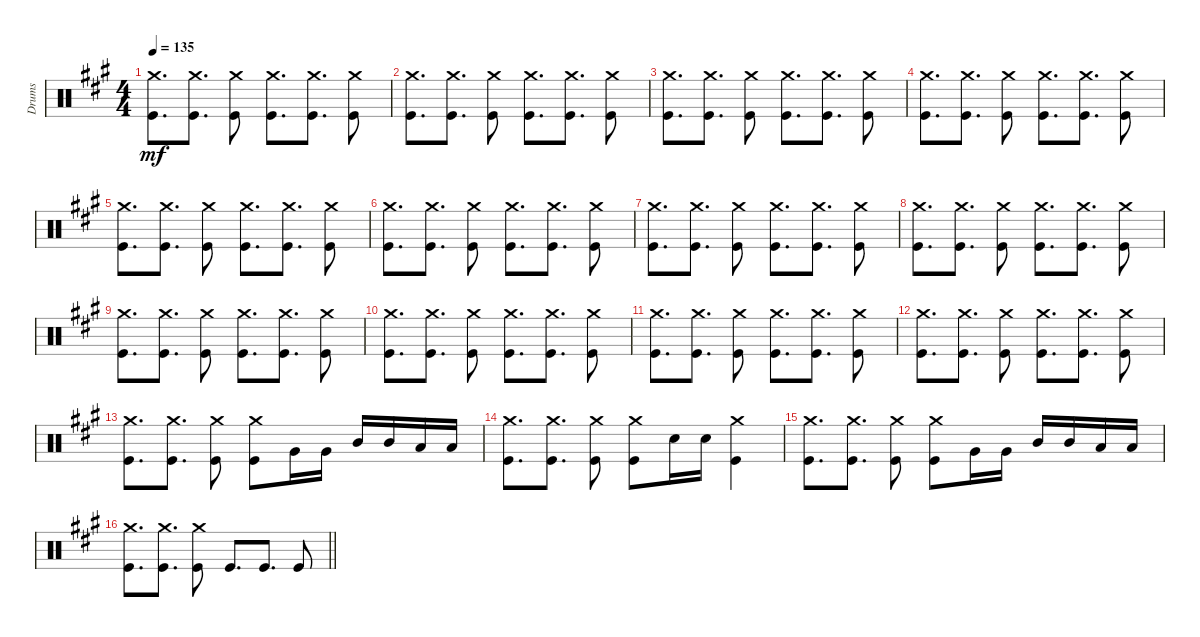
\track ("Drums" "Drums") {instrument percussion}
\staff {score}
\articulation defaults
\ts (4 4)
\tempo 135
\clef neutral
\ks a
("Kick (hit)" "Crash medium (hit)").8{d dy mf} ("Kick (hit)" "Crash medium (hit)").8{d} ("Kick (hit)" "Crash medium (hit)").8 ("Kick (hit)" "Crash medium (hit)").8{d} ("Kick (hit)" "Crash medium (hit)").8{d} ("Kick (hit)" "Crash medium (hit)").8 |
("Kick (hit)" "Crash medium (hit)").8{d} ("Kick (hit)" "Crash medium (hit)").8{d} ("Kick (hit)" "Crash medium (hit)").8 ("Kick (hit)" "Crash medium (hit)").8{d} ("Kick (hit)" "Crash medium (hit)").8{d} ("Kick (hit)" "Crash medium (hit)").8 |
("Kick (hit)" "Crash medium (hit)").8{d} ("Kick (hit)" "Crash medium (hit)").8{d} ("Kick (hit)" "Crash medium (hit)").8 ("Kick (hit)" "Crash medium (hit)").8{d} ("Kick (hit)" "Crash medium (hit)").8{d} ("Kick (hit)" "Crash medium (hit)").8 |
("Kick (hit)" "Crash medium (hit)").8{d} ("Kick (hit)" "Crash medium (hit)").8{d} ("Kick (hit)" "Crash medium (hit)").8 ("Kick (hit)" "Crash medium (hit)").8{d} ("Kick (hit)" "Crash medium (hit)").8{d} ("Kick (hit)" "Crash medium (hit)").8 |
("Kick (hit)" "Crash medium (hit)").8{d} ("Kick (hit)" "Crash medium (hit)").8{d} ("Kick (hit)" "Crash medium (hit)").8 ("Kick (hit)" "Crash medium (hit)").8{d} ("Kick (hit)" "Crash medium (hit)").8{d} ("Kick (hit)" "Crash medium (hit)").8 |
("Kick (hit)" "Crash medium (hit)").8{d} ("Kick (hit)" "Crash medium (hit)").8{d} ("Kick (hit)" "Crash medium (hit)").8 ("Kick (hit)" "Crash medium (hit)").8{d} ("Kick (hit)" "Crash medium (hit)").8{d} ("Kick (hit)" "Crash medium (hit)").8 |
("Kick (hit)" "Crash medium (hit)").8{d} ("Kick (hit)" "Crash medium (hit)").8{d} ("Kick (hit)" "Crash medium (hit)").8 ("Kick (hit)" "Crash medium (hit)").8{d} ("Kick (hit)" "Crash medium (hit)").8{d} ("Kick (hit)" "Crash medium (hit)").8 |
("Kick (hit)" "Crash medium (hit)").8{d} ("Kick (hit)" "Crash medium (hit)").8{d} ("Kick (hit)" "Crash medium (hit)").8 ("Kick (hit)" "Crash medium (hit)").8{d} ("Kick (hit)" "Crash medium (hit)").8{d} ("Kick (hit)" "Crash medium (hit)").8 |
("Kick (hit)" "Crash medium (hit)").8{d} ("Kick (hit)" "Crash medium (hit)").8{d} ("Kick (hit)" "Crash medium (hit)").8 ("Kick (hit)" "Crash medium (hit)").8{d} ("Kick (hit)" "Crash medium (hit)").8{d} ("Kick (hit)" "Crash medium (hit)").8 |
("Kick (hit)" "Crash medium (hit)").8{d} ("Kick (hit)" "Crash medium (hit)").8{d} ("Kick (hit)" "Crash medium (hit)").8 ("Kick (hit)" "Crash medium (hit)").8{d} ("Kick (hit)" "Crash medium (hit)").8{d} ("Kick (hit)" "Crash medium (hit)").8 |
("Kick (hit)" "Crash medium (hit)").8{d} ("Kick (hit)" "Crash medium (hit)").8{d} ("Kick (hit)" "Crash medium (hit)").8 ("Kick (hit)" "Crash medium (hit)").8{d} ("Kick (hit)" "Crash medium (hit)").8{d} ("Kick (hit)" "Crash medium (hit)").8 |
("Kick (hit)" "Crash medium (hit)").8{d} ("Kick (hit)" "Crash medium (hit)").8{d} ("Kick (hit)" "Crash medium (hit)").8 ("Kick (hit)" "Crash medium (hit)").8{d} ("Kick (hit)" "Crash medium (hit)").8{d} ("Kick (hit)" "Crash medium (hit)").8 |
("Kick (hit)" "Crash medium (hit)").8{d} ("Kick (hit)" "Crash medium (hit)").8{d} ("Kick (hit)" "Crash medium (hit)").8 ("Kick (hit)" "Crash medium (hit)").8 "Very Low Tom (hit)".16 "Very Low Tom (hit)".16 "Mid Tom (hit)".16 "Mid Tom (hit)".16 "Low Tom (hit)".16 "Low Tom (hit)".16 |
("Kick (hit)" "Crash medium (hit)").8{d} ("Kick (hit)" "Crash medium (hit)").8{d} ("Kick (hit)" "Crash medium (hit)").8 ("Kick (hit)" "Crash medium (hit)").8 "Snare (hit) 2".16 "Snare (hit) 2".16 ("Kick (hit)" "Crash medium (hit)").4 |
("Kick (hit)" "Crash medium (hit)").8{d} ("Kick (hit)" "Crash medium (hit)").8{d} ("Kick (hit)" "Crash medium (hit)").8 ("Kick (hit)" "Crash medium (hit)").8 "Very Low Tom (hit)".16 "Very Low Tom (hit)".16 "Mid Tom (hit)".16 "Mid Tom (hit)".16 "Low Tom (hit)".16 "Low Tom (hit)".16 |
\barLineRight lightlight
("Kick (hit)" "Crash medium (hit)").8{d} ("Kick (hit)" "Crash medium (hit)").8{d} ("Kick (hit)" "Crash medium (hit)").8 "Kick (hit)".8{d} "Kick (hit)".8{d} "Kick (hit)".8
